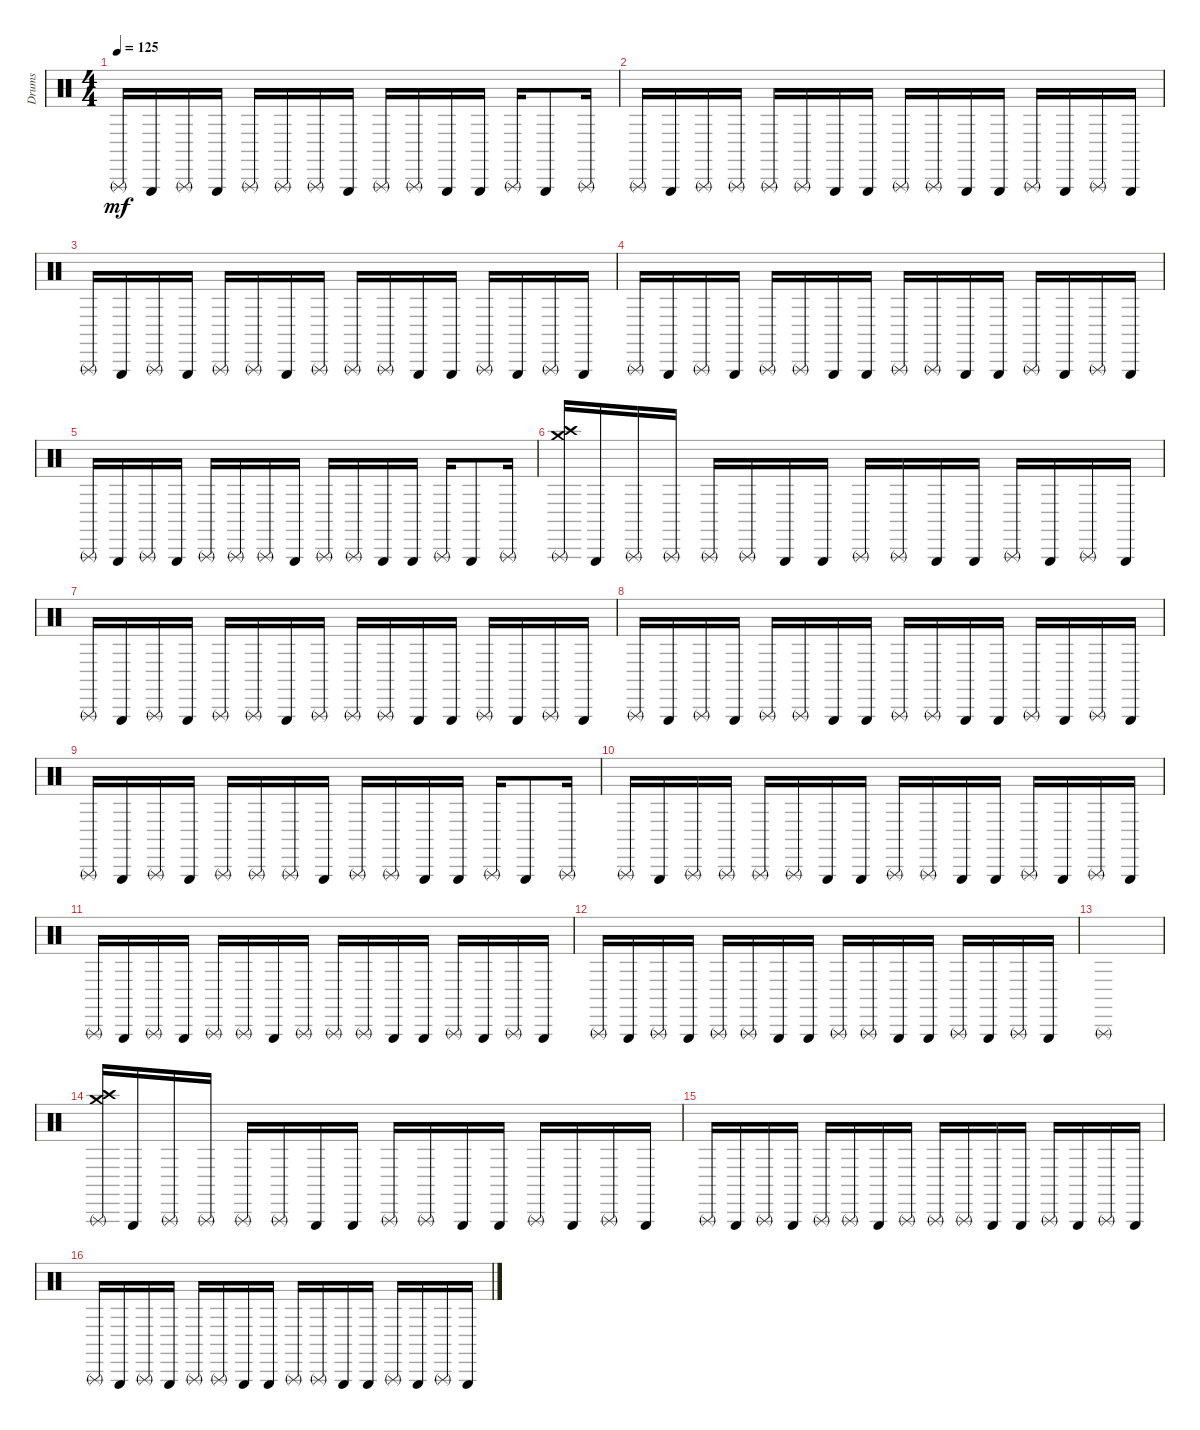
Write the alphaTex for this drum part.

\track ("Drums" "Drums") {instrument percussion}
\staff {score}
\articulation defaults
\ts (4 4)
\tempo 125
\clef neutral
\ks c "Triangle (rnute)".16{dy mf} "Triangle (hit)".16 "Triangle (rnute)".16 "Triangle (hit)".16 "Triangle (rnute)".16 "Triangle (rnute)".16 "Triangle (rnute)".16 "Triangle (hit)".16 "Triangle (rnute)".16 "Triangle (rnute)".16 "Triangle (hit)".16 "Triangle (hit)".16 "Triangle (rnute)".16 "Triangle (hit)".8 "Triangle (rnute)".16
|
"Triangle (rnute)".16 "Triangle (hit)".16 "Triangle (rnute)".16 "Triangle (rnute)".16 "Triangle (rnute)".16 "Triangle (rnute)".16 "Triangle (hit)".16 "Triangle (hit)".16 "Triangle (rnute)".16 "Triangle (rnute)".16 "Triangle (hit)".16 "Triangle (hit)".16 "Triangle (rnute)".16 "Triangle (hit)".16 "Triangle (rnute)".16 "Triangle (hit)".16 |
"Triangle (rnute)".16 "Triangle (hit)".16 "Triangle (rnute)".16 "Triangle (hit)".16 "Triangle (rnute)".16 "Triangle (rnute)".16 "Triangle (hit)".16 "Triangle (rnute)".16 "Triangle (rnute)".16 "Triangle (rnute)".16 "Triangle (hit)".16 "Triangle (hit)".16 "Triangle (rnute)".16 "Triangle (hit)".16 "Triangle (rnute)".16 "Triangle (hit)".16 |
"Triangle (rnute)".16 "Triangle (hit)".16 "Triangle (rnute)".16 "Triangle (hit)".16 "Triangle (rnute)".16 "Triangle (rnute)".16 "Triangle (hit)".16 "Triangle (hit)".16 "Triangle (rnute)".16 "Triangle (rnute)".16 "Triangle (hit)".16 "Triangle (hit)".16 "Triangle (rnute)".16 "Triangle (hit)".16 "Triangle (rnute)".16 "Triangle (hit)".16 |
"Triangle (rnute)".16 "Triangle (hit)".16 "Triangle (rnute)".16 "Triangle (hit)".16 "Triangle (rnute)".16 "Triangle (rnute)".16 "Triangle (rnute)".16 "Triangle (hit)".16 "Triangle (rnute)".16 "Triangle (rnute)".16 "Triangle (hit)".16 "Triangle (hit)".16 "Triangle (rnute)".16 "Triangle (hit)".8 "Triangle (rnute)".16 |
("Triangle (rnute)" "Crash high (hit)" "Crash medium (hit)").16 "Triangle (hit)".16 "Triangle (rnute)".16 "Triangle (rnute)".16 "Triangle (rnute)".16 "Triangle (rnute)".16 "Triangle (hit)".16 "Triangle (hit)".16 "Triangle (rnute)".16 "Triangle (rnute)".16 "Triangle (hit)".16 "Triangle (hit)".16 "Triangle (rnute)".16 "Triangle (hit)".16 "Triangle (rnute)".16 "Triangle (hit)".16 |
"Triangle (rnute)".16 "Triangle (hit)".16 "Triangle (rnute)".16 "Triangle (hit)".16 "Triangle (rnute)".16 "Triangle (rnute)".16 "Triangle (hit)".16 "Triangle (rnute)".16 "Triangle (rnute)".16 "Triangle (rnute)".16 "Triangle (hit)".16 "Triangle (hit)".16 "Triangle (rnute)".16 "Triangle (hit)".16 "Triangle (rnute)".16 "Triangle (hit)".16 |
"Triangle (rnute)".16 "Triangle (hit)".16 "Triangle (rnute)".16 "Triangle (hit)".16 "Triangle (rnute)".16 "Triangle (rnute)".16 "Triangle (hit)".16 "Triangle (hit)".16 "Triangle (rnute)".16 "Triangle (rnute)".16 "Triangle (hit)".16 "Triangle (hit)".16 "Triangle (rnute)".16 "Triangle (hit)".16 "Triangle (rnute)".16 "Triangle (hit)".16 |
"Triangle (rnute)".16 "Triangle (hit)".16 "Triangle (rnute)".16 "Triangle (hit)".16 "Triangle (rnute)".16 "Triangle (rnute)".16 "Triangle (rnute)".16 "Triangle (hit)".16 "Triangle (rnute)".16 "Triangle (rnute)".16 "Triangle (hit)".16 "Triangle (hit)".16 "Triangle (rnute)".16 "Triangle (hit)".8 "Triangle (rnute)".16 |
"Triangle (rnute)".16 "Triangle (hit)".16 "Triangle (rnute)".16 "Triangle (rnute)".16 "Triangle (rnute)".16 "Triangle (rnute)".16 "Triangle (hit)".16 "Triangle (hit)".16 "Triangle (rnute)".16 "Triangle (rnute)".16 "Triangle (hit)".16 "Triangle (hit)".16 "Triangle (rnute)".16 "Triangle (hit)".16 "Triangle (rnute)".16 "Triangle (hit)".16 |
"Triangle (rnute)".16 "Triangle (hit)".16 "Triangle (rnute)".16 "Triangle (hit)".16 "Triangle (rnute)".16 "Triangle (rnute)".16 "Triangle (hit)".16 "Triangle (rnute)".16 "Triangle (rnute)".16 "Triangle (rnute)".16 "Triangle (hit)".16 "Triangle (hit)".16 "Triangle (rnute)".16 "Triangle (hit)".16 "Triangle (rnute)".16 "Triangle (hit)".16 |
"Triangle (rnute)".16 "Triangle (hit)".16 "Triangle (rnute)".16 "Triangle (hit)".16 "Triangle (rnute)".16 "Triangle (rnute)".16 "Triangle (hit)".16 "Triangle (hit)".16 "Triangle (rnute)".16 "Triangle (rnute)".16 "Triangle (hit)".16 "Triangle (hit)".16 "Triangle (rnute)".16 "Triangle (hit)".16 "Triangle (rnute)".16 "Triangle (hit)".16 |
"Triangle (rnute)".1 |
("Triangle (rnute)" "Crash high (hit)" "Crash medium (hit)").16 "Triangle (hit)".16 "Triangle (rnute)".16 "Triangle (rnute)".16 "Triangle (rnute)".16 "Triangle (rnute)".16 "Triangle (hit)".16 "Triangle (hit)".16 "Triangle (rnute)".16 "Triangle (rnute)".16 "Triangle (hit)".16 "Triangle (hit)".16 "Triangle (rnute)".16 "Triangle (hit)".16 "Triangle (rnute)".16 "Triangle (hit)".16 |
"Triangle (rnute)".16 "Triangle (hit)".16 "Triangle (rnute)".16 "Triangle (hit)".16 "Triangle (rnute)".16 "Triangle (rnute)".16 "Triangle (hit)".16 "Triangle (rnute)".16 "Triangle (rnute)".16 "Triangle (rnute)".16 "Triangle (hit)".16 "Triangle (hit)".16 "Triangle (rnute)".16 "Triangle (hit)".16 "Triangle (rnute)".16 "Triangle (hit)".16 |
"Triangle (rnute)".16 "Triangle (hit)".16 "Triangle (rnute)".16 "Triangle (hit)".16 "Triangle (rnute)".16 "Triangle (rnute)".16 "Triangle (hit)".16 "Triangle (hit)".16 "Triangle (rnute)".16 "Triangle (rnute)".16 "Triangle (hit)".16 "Triangle (hit)".16 "Triangle (rnute)".16 "Triangle (hit)".16 "Triangle (rnute)".16 "Triangle (hit)".16
